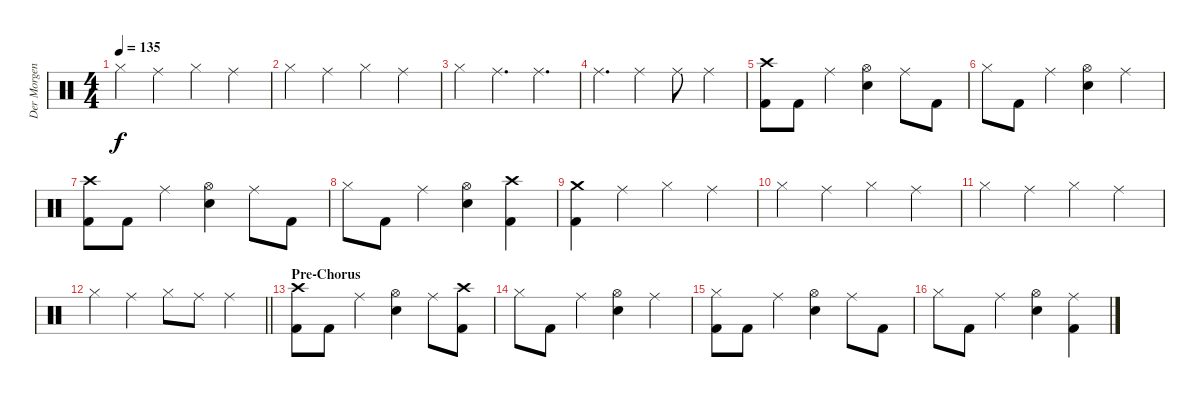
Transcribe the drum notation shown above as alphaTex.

\track ("Der Morgenstern" "Der Morgen") {instrument percussion}
\staff {score}
\articulation defaults
\ts (4 4)
\tempo 135
\clef neutral
\ks c "Hi-Hat (closed)".4{dy f} "Ride (middle)".4 "Hi-Hat (closed)".4 "Ride (middle)".4
|
"Hi-Hat (closed)".4 "Ride (middle)".4 "Hi-Hat (closed)".4 "Ride (middle)".4 |
"Hi-Hat (closed)".4 "Ride (middle)".4{d} "Ride (middle)".4{d} |
"Ride (middle)".4{d} "Ride (middle)".4 "Ride (middle)".8 "Ride (middle)".4 |
("Crash high (hit)" "Kick (hit) 2").8 "Kick (hit) 2".8 "Ride (middle)".4 ("Hi-Hat (open)" "Electric Snare (hit)").4 "Ride (middle)".8 "Kick (hit) 2".8 |
"Hi-Hat (closed)".8 "Kick (hit) 2".8 "Ride (middle)".4 ("Hi-Hat (open)" "Electric Snare (hit)").4 "Ride (middle)".4 |
("Crash high (hit)" "Kick (hit) 2").8 "Kick (hit) 2".8 "Ride (middle)".4 ("Hi-Hat (open)" "Electric Snare (hit)").4 "Ride (middle)".8 "Kick (hit) 2".8 |
"Hi-Hat (closed)".8 "Kick (hit) 2".8 "Ride (middle)".4 ("Hi-Hat (open)" "Electric Snare (hit)").4 ("Crash high (hit)" "Kick (hit) 2").4 |
("Crash medium (hit)" "Kick (hit) 2").4 "Ride (middle)".4 "Hi-Hat (closed)".4 "Ride (middle)".4 |
"Hi-Hat (closed)".4 "Ride (middle)".4 "Hi-Hat (closed)".4 "Ride (middle)".4 |
"Hi-Hat (closed)".4 "Ride (middle)".4 "Hi-Hat (closed)".4 "Ride (middle)".4 |
\barLineRight lightlight "Hi-Hat (closed)".4 "Ride (middle)".4 "Hi-Hat (closed)".8 "Ride (middle)".8 "Ride (middle)".4
|
\section ("" "Pre-Chorus")
("Crash high (hit)" "Kick (hit) 2").8 "Kick (hit) 2".8 "Ride (middle)".4 ("Hi-Hat (open)" "Electric Snare (hit)").4 "Ride (middle)".8 ("Crash high (hit)" "Kick (hit) 2").8 |
"Hi-Hat (closed)".8 "Kick (hit) 2".8 "Ride (middle)".4 ("Hi-Hat (open)" "Electric Snare (hit)").4 "Ride (middle)".4 |
("Hi-Hat (closed)" "Kick (hit) 2").8 "Kick (hit) 2".8 "Ride (middle)".4 ("Hi-Hat (open)" "Electric Snare (hit)").4 "Ride (middle)".8 "Kick (hit) 2".8 |
"Hi-Hat (closed)".8 "Kick (hit) 2".8 "Ride (middle)".4 ("Hi-Hat (open)" "Electric Snare (hit)").4 ("Ride (middle)" "Kick (hit) 2").4
